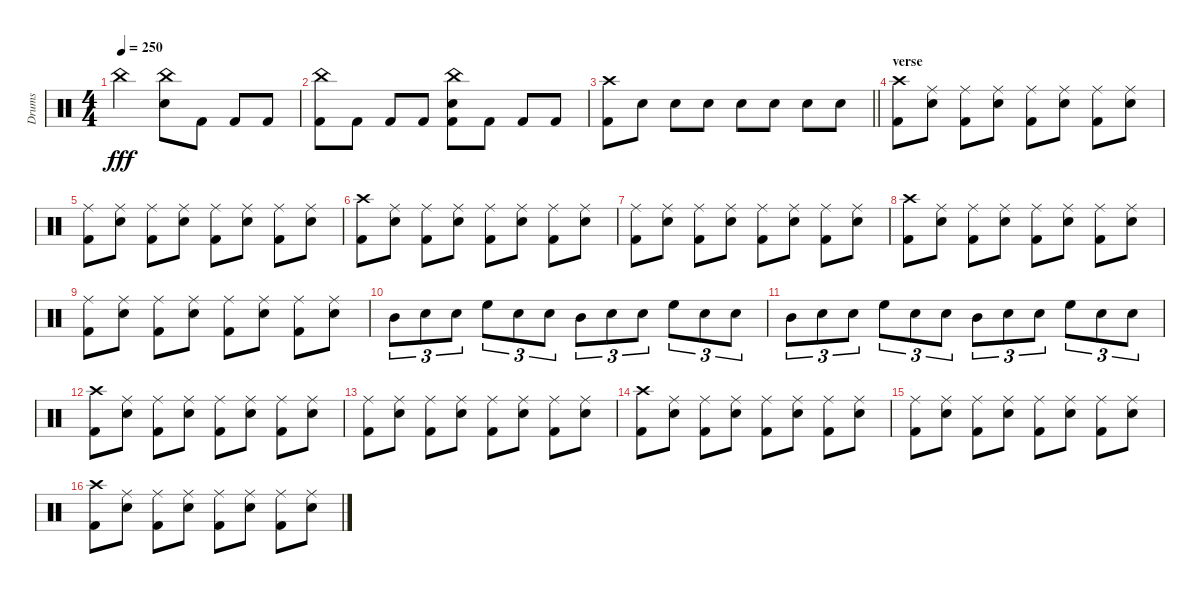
\track ("Drums" "Drums") {solo instrument percussion}
\staff {score}
\articulation defaults
\ts (4 4)
\tempo 250
\clef neutral
\ks c "China (hit)".2{dy fff}
("China (hit)" "Snare (hit) 2").8 "Kick (hit) 2".8 "Kick (hit) 2".8 "Kick (hit) 2".8 |
("China (hit)" "Kick (hit) 2").8 "Kick (hit) 2".8 "Kick (hit) 2".8 "Kick (hit) 2".8 ("China (hit)" "Snare (hit) 2" "Kick (hit) 2").8 "Kick (hit) 2".8 "Kick (hit) 2".8 "Kick (hit) 2".8 |
\barLineRight lightlight
("Crash high (hit)" "Kick (hit) 2").8 "Snare (hit) 2".8 "Snare (hit) 2".8 "Snare (hit) 2".8 "Snare (hit) 2".8 "Snare (hit) 2".8 "Snare (hit) 2".8 "Snare (hit) 2".8 |
\section ("" "verse")
("Crash high (hit)" "Kick (hit) 2").8 ("Ride (middle)" "Snare (hit) 2").8 ("Ride (middle)" "Kick (hit) 2").8 ("Ride (middle)" "Snare (hit) 2").8 ("Ride (middle)" "Kick (hit) 2").8 ("Ride (middle)" "Snare (hit) 2").8 ("Ride (middle)" "Kick (hit) 2").8 ("Ride (middle)" "Snare (hit) 2").8 |
("Ride (middle)" "Kick (hit) 2").8 ("Ride (middle)" "Snare (hit) 2").8 ("Ride (middle)" "Kick (hit) 2").8 ("Ride (middle)" "Snare (hit) 2").8 ("Ride (middle)" "Kick (hit) 2").8 ("Ride (middle)" "Snare (hit) 2").8 ("Ride (middle)" "Kick (hit) 2").8 ("Ride (middle)" "Snare (hit) 2").8 |
("Crash high (hit)" "Kick (hit) 2").8 ("Ride (middle)" "Snare (hit) 2").8 ("Ride (middle)" "Kick (hit) 2").8 ("Ride (middle)" "Snare (hit) 2").8 ("Ride (middle)" "Kick (hit) 2").8 ("Ride (middle)" "Snare (hit) 2").8 ("Ride (middle)" "Kick (hit) 2").8 ("Ride (middle)" "Snare (hit) 2").8 |
("Ride (middle)" "Kick (hit) 2").8 ("Ride (middle)" "Snare (hit) 2").8 ("Ride (middle)" "Kick (hit) 2").8 ("Ride (middle)" "Snare (hit) 2").8 ("Ride (middle)" "Kick (hit) 2").8 ("Ride (middle)" "Snare (hit) 2").8 ("Ride (middle)" "Kick (hit) 2").8 ("Ride (middle)" "Snare (hit) 2").8 |
("Crash high (hit)" "Kick (hit) 2").8 ("Ride (middle)" "Snare (hit) 2").8 ("Ride (middle)" "Kick (hit) 2").8 ("Ride (middle)" "Snare (hit) 2").8 ("Ride (middle)" "Kick (hit) 2").8 ("Ride (middle)" "Snare (hit) 2").8 ("Ride (middle)" "Kick (hit) 2").8 ("Ride (middle)" "Snare (hit) 2").8 |
("Ride (middle)" "Kick (hit) 2").8 ("Ride (middle)" "Snare (hit) 2").8 ("Ride (middle)" "Kick (hit) 2").8 ("Ride (middle)" "Snare (hit) 2").8 ("Ride (middle)" "Kick (hit) 2").8 ("Ride (middle)" "Snare (hit) 2").8 ("Ride (middle)" "Kick (hit) 2").8 ("Ride (middle)" "Snare (hit) 2").8 |
"Mid Tom (hit)".8{tu (3 2)} "Snare (hit) 2".8{tu (3 2)} "Snare (hit) 2".8{tu (3 2)} "High Floor Tom (hit)".8{tu (3 2)} "Snare (hit) 2".8{tu (3 2)} "Snare (hit) 2".8{tu (3 2)} "Mid Tom (hit)".8{tu (3 2)} "Snare (hit) 2".8{tu (3 2)} "Snare (hit) 2".8{tu (3 2)} "High Floor Tom (hit)".8{tu (3 2)} "Snare (hit) 2".8{tu (3 2)} "Snare (hit) 2".8{tu (3 2)} |
"Mid Tom (hit)".8{tu (3 2)} "Snare (hit) 2".8{tu (3 2)} "Snare (hit) 2".8{tu (3 2)} "High Floor Tom (hit)".8{tu (3 2)} "Snare (hit) 2".8{tu (3 2)} "Snare (hit) 2".8{tu (3 2)} "Mid Tom (hit)".8{tu (3 2)} "Snare (hit) 2".8{tu (3 2)} "Snare (hit) 2".8{tu (3 2)} "High Floor Tom (hit)".8{tu (3 2)} "Snare (hit) 2".8{tu (3 2)} "Snare (hit) 2".8{tu (3 2)} |
("Crash high (hit)" "Kick (hit) 2").8 ("Ride (middle)" "Snare (hit) 2").8 ("Ride (middle)" "Kick (hit) 2").8 ("Ride (middle)" "Snare (hit) 2").8 ("Ride (middle)" "Kick (hit) 2").8 ("Ride (middle)" "Snare (hit) 2").8 ("Ride (middle)" "Kick (hit) 2").8 ("Ride (middle)" "Snare (hit) 2").8 |
("Ride (middle)" "Kick (hit) 2").8 ("Ride (middle)" "Snare (hit) 2").8 ("Ride (middle)" "Kick (hit) 2").8 ("Ride (middle)" "Snare (hit) 2").8 ("Ride (middle)" "Kick (hit) 2").8 ("Ride (middle)" "Snare (hit) 2").8 ("Ride (middle)" "Kick (hit) 2").8 ("Ride (middle)" "Snare (hit) 2").8 |
("Crash high (hit)" "Kick (hit) 2").8 ("Ride (middle)" "Snare (hit) 2").8 ("Ride (middle)" "Kick (hit) 2").8 ("Ride (middle)" "Snare (hit) 2").8 ("Ride (middle)" "Kick (hit) 2").8 ("Ride (middle)" "Snare (hit) 2").8 ("Ride (middle)" "Kick (hit) 2").8 ("Ride (middle)" "Snare (hit) 2").8 |
("Ride (middle)" "Kick (hit) 2").8 ("Ride (middle)" "Snare (hit) 2").8 ("Ride (middle)" "Kick (hit) 2").8 ("Ride (middle)" "Snare (hit) 2").8 ("Ride (middle)" "Kick (hit) 2").8 ("Ride (middle)" "Snare (hit) 2").8 ("Ride (middle)" "Kick (hit) 2").8 ("Ride (middle)" "Snare (hit) 2").8 |
("Crash high (hit)" "Kick (hit) 2").8 ("Ride (middle)" "Snare (hit) 2").8 ("Ride (middle)" "Kick (hit) 2").8 ("Ride (middle)" "Snare (hit) 2").8 ("Ride (middle)" "Kick (hit) 2").8 ("Ride (middle)" "Snare (hit) 2").8 ("Ride (middle)" "Kick (hit) 2").8 ("Ride (middle)" "Snare (hit) 2").8
